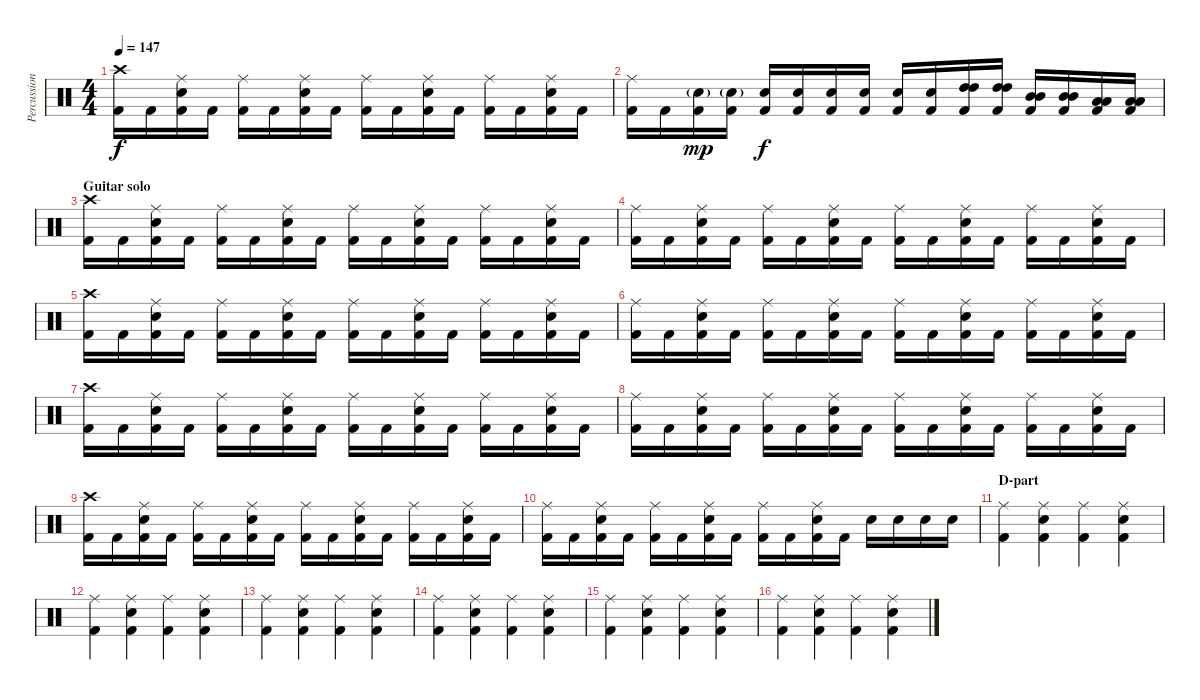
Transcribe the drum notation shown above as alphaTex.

\track ("Percussion" "Percussion") {instrument percussion}
\staff {score}
\articulation defaults
\ts (4 4)
\tempo 147
\clef neutral
\ks c
("Kick (hit) 2" "Crash high (hit)").16{dy f} "Kick (hit) 2".16 ("Kick (hit) 2" "Snare (hit) 2" "Ride (middle)").16 "Kick (hit) 2".16 ("Kick (hit) 2" "Ride (middle)").16 "Kick (hit) 2".16 ("Kick (hit) 2" "Snare (hit) 2" "Ride (middle)").16 "Kick (hit) 2".16 ("Kick (hit) 2" "Ride (middle)").16 "Kick (hit) 2".16 ("Kick (hit) 2" "Snare (hit) 2" "Ride (middle)").16 "Kick (hit) 2".16 ("Kick (hit) 2" "Ride (middle)").16 "Kick (hit) 2".16 ("Kick (hit) 2" "Snare (hit) 2" "Ride (middle)").16 "Kick (hit) 2".16 |
("Kick (hit) 2" "Ride (middle)").16 "Kick (hit) 2".16 ("Kick (hit) 2" "Snare (hit) 2"{g}).16{dy mp} ("Kick (hit) 2" "Snare (hit) 2"{g}).16 ("Kick (hit) 2" "Snare (hit) 2").16{dy f} ("Kick (hit) 2" "Snare (hit) 2").16 ("Kick (hit) 2" "Snare (hit) 2").16 ("Kick (hit) 2" "Snare (hit) 2").16 ("Kick (hit) 2" "Snare (hit) 2").16 ("Kick (hit) 2" "Snare (hit) 2").16 ("Kick (hit) 2" "High Tom (hit)" "High Tom (hit)").16 ("Kick (hit) 2" "High Tom (hit)" "High Tom (hit)").16 ("Kick (hit) 2" "Mid Tom (hit)" "Mid Tom (hit)").16 ("Kick (hit) 2" "Mid Tom (hit)" "Mid Tom (hit)").16 ("Kick (hit) 2" "Low Tom (hit)" "Low Tom (hit)").16 ("Kick (hit) 2" "Low Tom (hit)" "Low Tom (hit)").16 |
\section ("" "Guitar solo")
("Kick (hit) 2" "Crash high (hit)").16 "Kick (hit) 2".16 ("Kick (hit) 2" "Snare (hit) 2" "Ride (middle)").16 "Kick (hit) 2".16 ("Kick (hit) 2" "Ride (middle)").16 "Kick (hit) 2".16 ("Kick (hit) 2" "Snare (hit) 2" "Ride (middle)").16 "Kick (hit) 2".16 ("Kick (hit) 2" "Ride (middle)").16 "Kick (hit) 2".16 ("Kick (hit) 2" "Snare (hit) 2" "Ride (middle)").16 "Kick (hit) 2".16 ("Kick (hit) 2" "Ride (middle)").16 "Kick (hit) 2".16 ("Kick (hit) 2" "Snare (hit) 2" "Ride (middle)").16 "Kick (hit) 2".16 |
("Kick (hit) 2" "Ride (middle)").16 "Kick (hit) 2".16 ("Kick (hit) 2" "Snare (hit) 2" "Ride (middle)").16 "Kick (hit) 2".16 ("Kick (hit) 2" "Ride (middle)").16 "Kick (hit) 2".16 ("Kick (hit) 2" "Snare (hit) 2" "Ride (middle)").16 "Kick (hit) 2".16 ("Kick (hit) 2" "Ride (middle)").16 "Kick (hit) 2".16 ("Kick (hit) 2" "Snare (hit) 2" "Ride (middle)").16 "Kick (hit) 2".16 ("Kick (hit) 2" "Ride (middle)").16 "Kick (hit) 2".16 ("Kick (hit) 2" "Snare (hit) 2" "Ride (middle)").16 "Kick (hit) 2".16 |
("Kick (hit) 2" "Crash high (hit)").16 "Kick (hit) 2".16 ("Kick (hit) 2" "Snare (hit) 2" "Ride (middle)").16 "Kick (hit) 2".16 ("Kick (hit) 2" "Ride (middle)").16 "Kick (hit) 2".16 ("Kick (hit) 2" "Snare (hit) 2" "Ride (middle)").16 "Kick (hit) 2".16 ("Kick (hit) 2" "Ride (middle)").16 "Kick (hit) 2".16 ("Kick (hit) 2" "Snare (hit) 2" "Ride (middle)").16 "Kick (hit) 2".16 ("Kick (hit) 2" "Ride (middle)").16 "Kick (hit) 2".16 ("Kick (hit) 2" "Snare (hit) 2" "Ride (middle)").16 "Kick (hit) 2".16 |
("Kick (hit) 2" "Ride (middle)").16 "Kick (hit) 2".16 ("Kick (hit) 2" "Snare (hit) 2" "Ride (middle)").16 "Kick (hit) 2".16 ("Kick (hit) 2" "Ride (middle)").16 "Kick (hit) 2".16 ("Kick (hit) 2" "Snare (hit) 2" "Ride (middle)").16 "Kick (hit) 2".16 ("Kick (hit) 2" "Ride (middle)").16 "Kick (hit) 2".16 ("Kick (hit) 2" "Snare (hit) 2" "Ride (middle)").16 "Kick (hit) 2".16 ("Kick (hit) 2" "Ride (middle)").16 "Kick (hit) 2".16 ("Kick (hit) 2" "Snare (hit) 2" "Ride (middle)").16 "Kick (hit) 2".16 |
("Kick (hit) 2" "Crash high (hit)").16 "Kick (hit) 2".16 ("Kick (hit) 2" "Snare (hit) 2" "Ride (middle)").16 "Kick (hit) 2".16 ("Kick (hit) 2" "Ride (middle)").16 "Kick (hit) 2".16 ("Kick (hit) 2" "Snare (hit) 2" "Ride (middle)").16 "Kick (hit) 2".16 ("Kick (hit) 2" "Ride (middle)").16 "Kick (hit) 2".16 ("Kick (hit) 2" "Snare (hit) 2" "Ride (middle)").16 "Kick (hit) 2".16 ("Kick (hit) 2" "Ride (middle)").16 "Kick (hit) 2".16 ("Kick (hit) 2" "Snare (hit) 2" "Ride (middle)").16 "Kick (hit) 2".16 |
("Kick (hit) 2" "Ride (middle)").16 "Kick (hit) 2".16 ("Kick (hit) 2" "Snare (hit) 2" "Ride (middle)").16 "Kick (hit) 2".16 ("Kick (hit) 2" "Ride (middle)").16 "Kick (hit) 2".16 ("Kick (hit) 2" "Snare (hit) 2" "Ride (middle)").16 "Kick (hit) 2".16 ("Kick (hit) 2" "Ride (middle)").16 "Kick (hit) 2".16 ("Kick (hit) 2" "Snare (hit) 2" "Ride (middle)").16 "Kick (hit) 2".16 ("Kick (hit) 2" "Ride (middle)").16 "Kick (hit) 2".16 ("Kick (hit) 2" "Snare (hit) 2" "Ride (middle)").16 "Kick (hit) 2".16 |
("Kick (hit) 2" "Crash high (hit)").16 "Kick (hit) 2".16 ("Kick (hit) 2" "Snare (hit) 2" "Ride (middle)").16 "Kick (hit) 2".16 ("Kick (hit) 2" "Ride (middle)").16 "Kick (hit) 2".16 ("Kick (hit) 2" "Snare (hit) 2" "Ride (middle)").16 "Kick (hit) 2".16 ("Kick (hit) 2" "Ride (middle)").16 "Kick (hit) 2".16 ("Kick (hit) 2" "Snare (hit) 2" "Ride (middle)").16 "Kick (hit) 2".16 ("Kick (hit) 2" "Ride (middle)").16 "Kick (hit) 2".16 ("Kick (hit) 2" "Snare (hit) 2" "Ride (middle)").16 "Kick (hit) 2".16 |
("Kick (hit) 2" "Ride (middle)").16 "Kick (hit) 2".16 ("Kick (hit) 2" "Snare (hit) 2" "Ride (middle)").16 "Kick (hit) 2".16 ("Kick (hit) 2" "Ride (middle)").16 "Kick (hit) 2".16 ("Kick (hit) 2" "Snare (hit) 2" "Ride (middle)").16 "Kick (hit) 2".16 ("Kick (hit) 2" "Ride (middle)").16 "Kick (hit) 2".16 ("Kick (hit) 2" "Snare (hit) 2" "Ride (middle)").16 "Kick (hit) 2".16 "Snare (hit) 2".16 "Snare (hit) 2".16 "Snare (hit) 2".16 "Snare (hit) 2".16 |
\section ("" "D-part")
("Ride (middle)" "Kick (hit) 2").4 ("Ride (middle)" "Snare (hit) 2" "Kick (hit) 2").4 ("Ride (middle)" "Kick (hit) 2").4 ("Ride (middle)" "Snare (hit) 2" "Kick (hit) 2").4 |
("Ride (middle)" "Kick (hit) 2").4 ("Ride (middle)" "Snare (hit) 2" "Kick (hit) 2").4 ("Ride (middle)" "Kick (hit) 2").4 ("Ride (middle)" "Snare (hit) 2" "Kick (hit) 2").4 |
("Ride (middle)" "Kick (hit) 2").4 ("Ride (middle)" "Snare (hit) 2" "Kick (hit) 2").4 ("Ride (middle)" "Kick (hit) 2").4 ("Ride (middle)" "Snare (hit) 2" "Kick (hit) 2").4 |
("Ride (middle)" "Kick (hit) 2").4 ("Ride (middle)" "Snare (hit) 2" "Kick (hit) 2").4 ("Ride (middle)" "Kick (hit) 2").4 ("Ride (middle)" "Snare (hit) 2" "Kick (hit) 2").4 |
("Ride (middle)" "Kick (hit) 2").4 ("Ride (middle)" "Snare (hit) 2" "Kick (hit) 2").4 ("Ride (middle)" "Kick (hit) 2").4 ("Ride (middle)" "Snare (hit) 2" "Kick (hit) 2").4 |
("Ride (middle)" "Kick (hit) 2").4 ("Ride (middle)" "Snare (hit) 2" "Kick (hit) 2").4 ("Ride (middle)" "Kick (hit) 2").4 ("Ride (middle)" "Snare (hit) 2" "Kick (hit) 2").4
